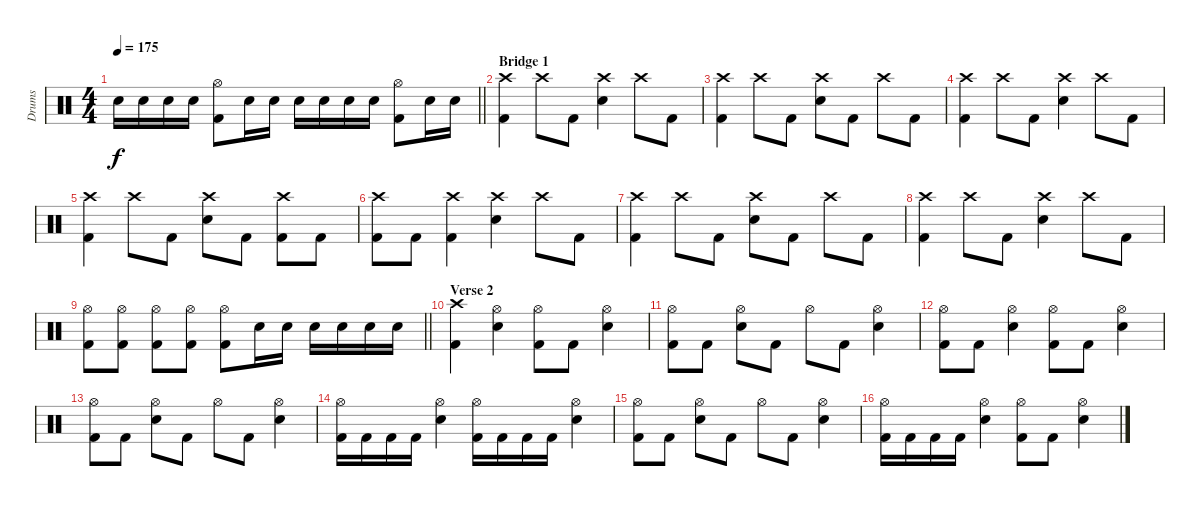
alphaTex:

\track ("Drums" "Drums") {instrument percussion}
\staff {score}
\articulation defaults
\ts (4 4)
\tempo 175
\clef neutral
\barLineRight lightlight
\ks c "Electric Snare (hit)".16{dy f} "Electric Snare (hit)".16 "Electric Snare (hit)".16 "Electric Snare (hit)".16
("Hi-Hat (open)" "Kick (hit) 2").8 "Electric Snare (hit)".16 "Electric Snare (hit)".16 "Electric Snare (hit)".16 "Electric Snare (hit)".16 "Electric Snare (hit)".16 "Electric Snare (hit)".16 ("Hi-Hat (open)" "Kick (hit) 2").8 "Electric Snare (hit)".16 "Electric Snare (hit)".16 |
\section ("" "Bridge 1")
("Crash high (hit)" "Kick (hit) 2").4 "Crash high (hit)".8 "Kick (hit) 2".8 ("Crash high (hit)" "Electric Snare (hit)").4 "Crash high (hit)".8 "Kick (hit) 2".8 |
("Crash high (hit)" "Kick (hit) 2").4 "Crash high (hit)".8 "Kick (hit) 2".8 ("Crash high (hit)" "Electric Snare (hit)").8 "Kick (hit) 2".8 "Crash high (hit)".8 "Kick (hit) 2".8 |
("Crash high (hit)" "Kick (hit) 2").4 "Crash high (hit)".8 "Kick (hit) 2".8 ("Crash high (hit)" "Electric Snare (hit)").4 "Crash high (hit)".8 "Kick (hit) 2".8 |
("Crash high (hit)" "Kick (hit) 2").4 "Crash high (hit)".8 "Kick (hit) 2".8 ("Crash high (hit)" "Electric Snare (hit)").8 "Kick (hit) 2".8 ("Crash high (hit)" "Kick (hit) 2").8 "Kick (hit) 2".8 |
("Crash high (hit)" "Kick (hit) 2").8 "Kick (hit) 2".8 ("Crash high (hit)" "Kick (hit) 2").4 ("Crash high (hit)" "Electric Snare (hit)").4 "Crash high (hit)".8 "Kick (hit) 2".8 |
("Crash high (hit)" "Kick (hit) 2").4 "Crash high (hit)".8 "Kick (hit) 2".8 ("Crash high (hit)" "Electric Snare (hit)").8 "Kick (hit) 2".8 "Crash high (hit)".8 "Kick (hit) 2".8 |
("Crash high (hit)" "Kick (hit) 2").4 "Crash high (hit)".8 "Kick (hit) 2".8 ("Crash high (hit)" "Electric Snare (hit)").4 "Crash high (hit)".8 "Kick (hit) 2".8 |
\barLineRight lightlight
("Hi-Hat (open)" "Kick (hit) 2").8 ("Hi-Hat (open)" "Kick (hit) 2").8 ("Hi-Hat (open)" "Kick (hit) 2").8 ("Hi-Hat (open)" "Kick (hit) 2").8 ("Hi-Hat (open)" "Kick (hit) 2").8 "Electric Snare (hit)".16 "Electric Snare (hit)".16 "Electric Snare (hit)".16 "Electric Snare (hit)".16 "Electric Snare (hit)".16 "Electric Snare (hit)".16 |
\section ("" "Verse 2")
("Crash high (hit)" "Kick (hit) 2").4 ("Hi-Hat (open)" "Electric Snare (hit)").4 ("Hi-Hat (open)" "Kick (hit) 2").8 "Kick (hit) 2".8 ("Hi-Hat (open)" "Electric Snare (hit)").4 |
("Hi-Hat (open)" "Kick (hit) 2").8 "Kick (hit) 2".8 ("Hi-Hat (open)" "Electric Snare (hit)").8 "Kick (hit) 2".8 "Hi-Hat (open)".8 "Kick (hit) 2".8 ("Hi-Hat (open)" "Electric Snare (hit)").4 |
("Hi-Hat (open)" "Kick (hit) 2").8 "Kick (hit) 2".8 ("Hi-Hat (open)" "Electric Snare (hit)").4 ("Hi-Hat (open)" "Kick (hit) 2").8 "Kick (hit) 2".8 ("Hi-Hat (open)" "Electric Snare (hit)").4 |
("Hi-Hat (open)" "Kick (hit) 2").8 "Kick (hit) 2".8 ("Hi-Hat (open)" "Electric Snare (hit)").8 "Kick (hit) 2".8 "Hi-Hat (open)".8 "Kick (hit) 2".8 ("Hi-Hat (open)" "Electric Snare (hit)").4 |
("Hi-Hat (open)" "Kick (hit) 2").16 "Kick (hit) 2".16 "Kick (hit) 2".16 "Kick (hit) 2".16 ("Hi-Hat (open)" "Electric Snare (hit)").4 ("Hi-Hat (open)" "Kick (hit) 2").16 "Kick (hit) 2".16 "Kick (hit) 2".16 "Kick (hit) 2".16 ("Hi-Hat (open)" "Electric Snare (hit)").4 |
("Hi-Hat (open)" "Kick (hit) 2").8 "Kick (hit) 2".8 ("Hi-Hat (open)" "Electric Snare (hit)").8 "Kick (hit) 2".8 "Hi-Hat (open)".8 "Kick (hit) 2".8 ("Hi-Hat (open)" "Electric Snare (hit)").4 |
("Hi-Hat (open)" "Kick (hit) 2").16 "Kick (hit) 2".16 "Kick (hit) 2".16 "Kick (hit) 2".16 ("Hi-Hat (open)" "Electric Snare (hit)").4 ("Hi-Hat (open)" "Kick (hit) 2").8 "Kick (hit) 2".8 ("Hi-Hat (open)" "Electric Snare (hit)").4
